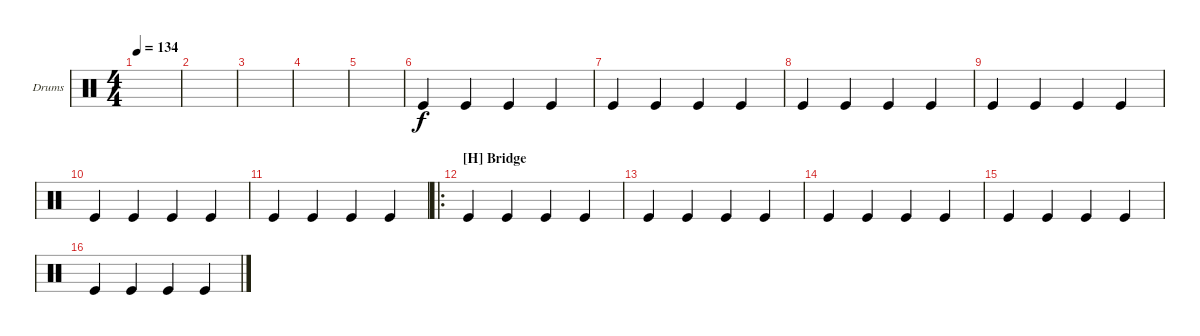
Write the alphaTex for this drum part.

\defaultSystemsLayout 4
\bracketExtendMode groupsimilarinstruments
\firstSystemTrackNameOrientation horizontal
\otherSystemsTrackNameOrientation horizontal
\track ("Bass Drum" "Drums") {instrument percussion}
\staff {score}
\articulation defaults
\ts (4 4)
\tempo 134
\clef neutral
\ks c
|
|
|
|
|
"Kick (hit)".4 "Kick (hit)".4 "Kick (hit)".4 "Kick (hit)".4 |
"Kick (hit)".4 "Kick (hit)".4 "Kick (hit)".4 "Kick (hit)".4 |
"Kick (hit)".4 "Kick (hit)".4 "Kick (hit)".4 "Kick (hit)".4 |
"Kick (hit)".4 "Kick (hit)".4 "Kick (hit)".4 "Kick (hit)".4 |
"Kick (hit)".4 "Kick (hit)".4 "Kick (hit)".4 "Kick (hit)".4 |
"Kick (hit)".4 "Kick (hit)".4 "Kick (hit)".4 "Kick (hit)".4 |
\ro
\section ("H" "Bridge")
"Kick (hit)".4 "Kick (hit)".4 "Kick (hit)".4 "Kick (hit)".4 |
"Kick (hit)".4 "Kick (hit)".4 "Kick (hit)".4 "Kick (hit)".4 |
"Kick (hit)".4 "Kick (hit)".4 "Kick (hit)".4 "Kick (hit)".4 |
"Kick (hit)".4 "Kick (hit)".4 "Kick (hit)".4 "Kick (hit)".4 |
"Kick (hit)".4 "Kick (hit)".4 "Kick (hit)".4 "Kick (hit)".4
